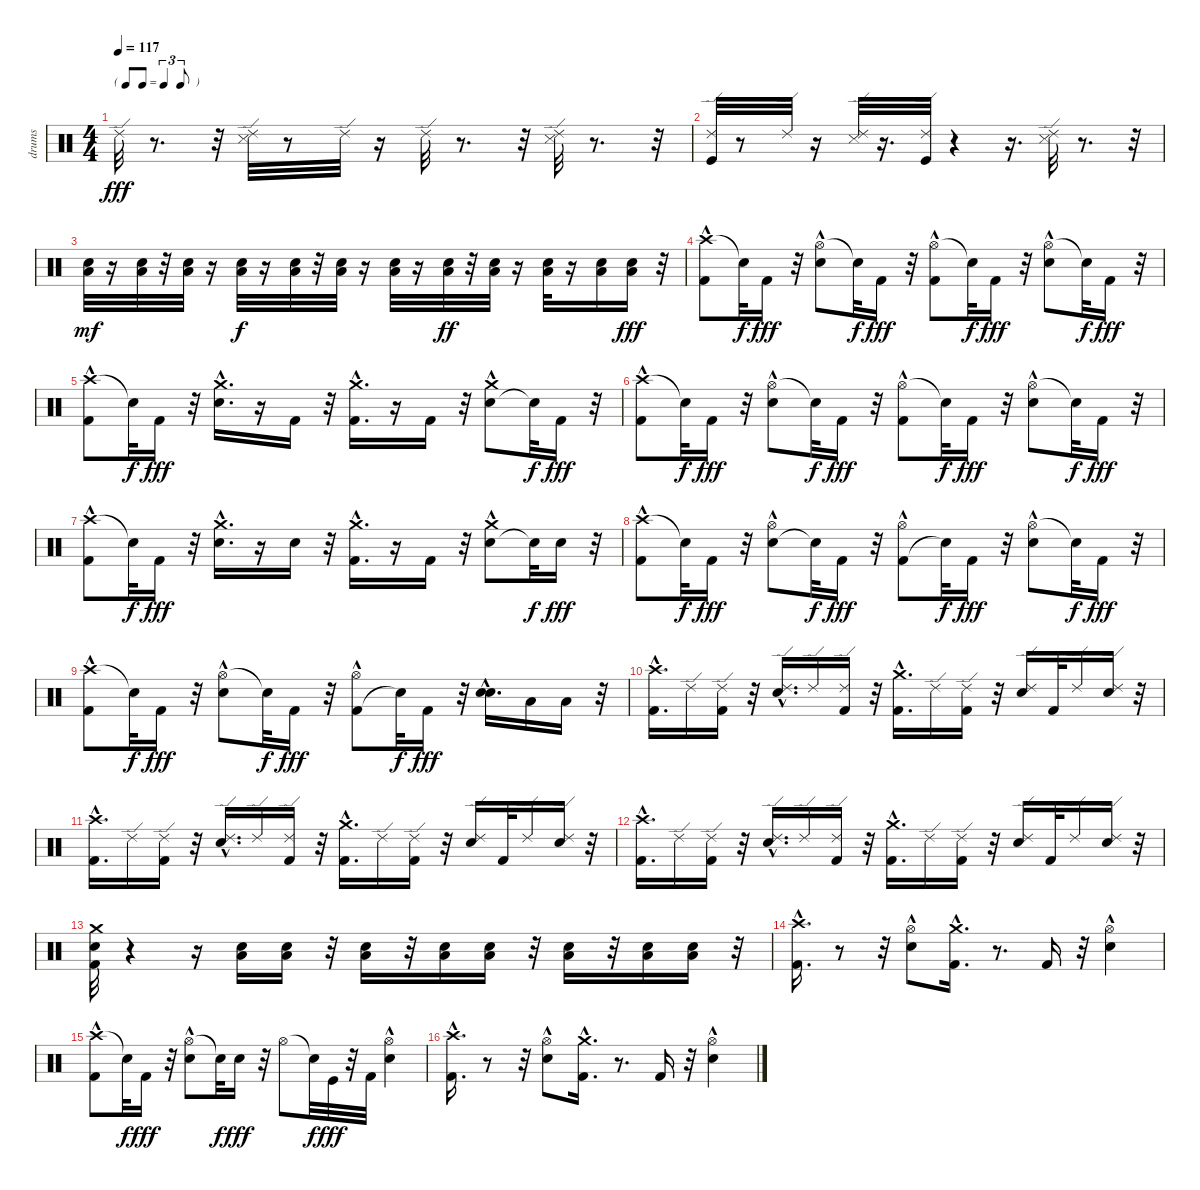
\track ("drums" "drums") {instrument percussion}
\staff {score}
\articulation defaults
\ts (4 4)
\tf triplet8th
\tempo 117
\clef neutral
\ks c "Ride (edge) 2".32{dy fff}
r.8{d} r.32 ("Snare (side stick) 3" "Ride (edge) 2").32 r.8 "Ride (edge) 2".32 r.16 "Ride (edge) 2".32 r.8{d} r.32 ("Snare (side stick) 3" "Ride (edge) 2").32 r.8{d} r.32 |
("Kick (hit)" "Ride (edge) 2").32 r.8 "Ride (edge) 2".32 r.16 ("Snare (side stick) 3" "Ride (edge) 2").32 r.16{d} ("Kick (hit)" "Ride (edge) 2").32 r.4 r.16{d} ("Snare (side stick) 3" "Ride (edge) 2").32 r.8{d} r.32 |
("Low Floor Tom (hit)" "Electric Snare (hit)").32{dy mf} r.16 ("Low Floor Tom (hit)" "Electric Snare (hit)").32 r.32 ("Low Floor Tom (hit)" "Electric Snare (hit)").32 r.16 ("Low Floor Tom (hit)" "Electric Snare (hit)").32{dy f} r.16 ("Low Floor Tom (hit)" "Electric Snare (hit)").32 r.32 ("Low Floor Tom (hit)" "Electric Snare (hit)").32 r.16 ("Low Floor Tom (hit)" "Electric Snare (hit)").32 r.16 ("Low Floor Tom (hit)" "Electric Snare (hit)").32{dy ff} r.32 ("Low Floor Tom (hit)" "Electric Snare (hit)").32 r.16 ("Low Floor Tom (hit)" "Electric Snare (hit)").32 r.16 ("Low Floor Tom (hit)" "Electric Snare (hit)").16 ("Electric Snare (hit)" "Low Floor Tom (hit)").16{dy fff} r.32 |
("Crash high (hit)" "Kick (hit) 2"{hac}).8 "Snare (hit)"{t}.32{dy f} "Kick (hit) 2".16{dy fff} r.32 ("Hi-Hat (open)" "Electric Snare (hit)"{hac}).8 "Snare (hit)"{t}.32{dy f} "Kick (hit) 2".16{dy fff} r.32 ("Hi-Hat (open)" "Kick (hit) 2"{hac}).8 "Snare (hit)"{t}.32{dy f} "Kick (hit) 2".16{dy fff} r.32 ("Hi-Hat (open)" "Electric Snare (hit)"{hac}).8 "Snare (hit)"{t}.32{dy f} "Kick (hit) 2".16{dy fff} r.32 |
("Crash high (hit)" "Kick (hit) 2"{hac}).8 "Snare (hit)"{t}.32{dy f} "Kick (hit) 2".16{dy fff} r.32 ("Electric Snare (hit)"{hac} "Crash medium (hit)"{hac}).16{d} r.16 "Kick (hit) 2".16 r.32 ("Kick (hit) 2"{hac} "Crash medium (hit)"{hac}).16{d} r.16 "Kick (hit) 2".16 r.32 ("Electric Snare (hit)"{hac} "Crash medium (hit)").8 "Snare (hit)"{t}.32{dy f} "Kick (hit) 2".16{dy fff} r.32 |
("Crash high (hit)" "Kick (hit) 2"{hac}).8 "Snare (hit)"{t}.32{dy f} "Kick (hit) 2".16{dy fff} r.32 ("Hi-Hat (open)" "Electric Snare (hit)"{hac}).8 "Snare (hit)"{t}.32{dy f} "Kick (hit) 2".16{dy fff} r.32 ("Hi-Hat (open)" "Kick (hit) 2"{hac}).8 "Snare (hit)"{t}.32{dy f} "Kick (hit) 2".16{dy fff} r.32 ("Hi-Hat (open)" "Electric Snare (hit)"{hac}).8 "Snare (hit)"{t}.32{dy f} "Kick (hit) 2".16{dy fff} r.32 |
("Crash high (hit)" "Kick (hit) 2"{hac}).8 "Snare (hit)"{t}.32{dy f} "Kick (hit) 2".16{dy fff} r.32 ("Electric Snare (hit)"{hac} "Crash medium (hit)"{hac}).16{d} r.16 "Electric Snare (hit)".16 r.32 ("Kick (hit) 2"{hac} "Crash medium (hit)"{hac}).16{d} r.16 "Kick (hit) 2".16 r.32 ("Electric Snare (hit)"{hac} "Crash medium (hit)").8 "Snare (hit)"{t}.32{dy f} "Electric Snare (hit)".16{dy fff} r.32 |
("Crash high (hit)" "Kick (hit) 2"{hac}).8 "Snare (hit)"{t}.32{dy f} "Kick (hit) 2".16{dy fff} r.32 ("Electric Snare (hit)"{hac} "Hi-Hat (open)").8 "Snare (hit)"{t}.32{dy f} "Kick (hit) 2".16{dy fff} r.32 ("Kick (hit) 2"{hac} "Hi-Hat (open)").8 "Snare (hit)"{t}.32{dy f} "Kick (hit) 2".16{dy fff} r.32 ("Hi-Hat (open)" "Electric Snare (hit)"{hac}).8 "Snare (hit)"{t}.32{dy f} "Kick (hit) 2".16{dy fff} r.32 |
("Crash high (hit)" "Kick (hit) 2"{hac}).8 "Snare (hit)"{t}.32{dy f} "Kick (hit) 2".16{dy fff} r.32 ("Hi-Hat (open)" "Electric Snare (hit)"{hac}).8 "Snare (hit)"{t}.32{dy f} "Kick (hit) 2".16{dy fff} r.32 ("Kick (hit) 2"{hac} "Hi-Hat (open)").8 "Snare (hit)"{t}.32{dy f} "Kick (hit) 2".16{dy fff} r.32 ("Electric Snare (hit)"{hac} "Electric Snare (hit)"{hac}).16{d} "Low Floor Tom (hit)".16 "Low Floor Tom (hit)".16 r.32 |
("Crash high (hit)"{hac} "Kick (hit) 2"{hac}).16{d} "Ride (edge) 2".16 ("Ride (edge) 2" "Kick (hit) 2").16 r.32 ("Ride (edge) 2" "Electric Snare (hit)"{hac}).16{d} "Ride (edge) 2".16 ("Ride (edge) 2" "Kick (hit) 2").16 r.32 ("Crash medium (hit)"{hac} "Kick (hit) 2"{hac}).16{d} "Ride (edge) 2".16 ("Ride (edge) 2" "Kick (hit) 2").16 r.32 ("Ride (edge) 2" "Electric Snare (hit)").16 "Kick (hit) 2".32 "Ride (edge) 2".16 ("Ride (edge) 2" "Electric Snare (hit)").16 r.32 |
("Crash high (hit)"{hac} "Kick (hit) 2"{hac}).16{d} "Ride (edge) 2".16 ("Ride (edge) 2" "Kick (hit) 2").16 r.32 ("Ride (edge) 2" "Electric Snare (hit)"{hac}).16{d} "Ride (edge) 2".16 ("Ride (edge) 2" "Kick (hit) 2").16 r.32 ("Crash medium (hit)"{hac} "Kick (hit) 2"{hac}).16{d} "Ride (edge) 2".16 ("Ride (edge) 2" "Kick (hit) 2").16 r.32 ("Ride (edge) 2" "Electric Snare (hit)").16 "Kick (hit) 2".32 "Ride (edge) 2".16 ("Ride (edge) 2" "Electric Snare (hit)").16 r.32 |
("Crash high (hit)"{hac} "Kick (hit) 2"{hac}).16{d} "Ride (edge) 2".16 ("Ride (edge) 2" "Kick (hit) 2").16 r.32 ("Ride (edge) 2" "Electric Snare (hit)"{hac}).16{d} "Ride (edge) 2".16 ("Ride (edge) 2" "Kick (hit) 2").16 r.32 ("Crash medium (hit)"{hac} "Kick (hit) 2"{hac}).16{d} "Ride (edge) 2".16 ("Ride (edge) 2" "Kick (hit) 2").16 r.32 ("Ride (edge) 2" "Electric Snare (hit)").16 "Kick (hit) 2".32 "Ride (edge) 2".16 ("Ride (edge) 2" "Electric Snare (hit)").16 r.32 |
("Kick (hit) 2" "Electric Snare (hit)" "Crash medium (hit)").32 r.4 r.16 ("Electric Snare (hit)" "Low Floor Tom (hit)").16 ("Electric Snare (hit)" "Low Floor Tom (hit)").16 r.32 ("Electric Snare (hit)" "Low Floor Tom (hit)").16 r.32 ("Electric Snare (hit)" "Low Floor Tom (hit)").16 ("Electric Snare (hit)" "Low Floor Tom (hit)").16 r.32 ("Electric Snare (hit)" "Low Floor Tom (hit)").16 r.32 ("Electric Snare (hit)" "Low Floor Tom (hit)").16 ("Electric Snare (hit)" "Low Floor Tom (hit)").16 r.32 |
("Kick (hit) 2"{hac} "Crash high (hit)"{hac}).16{d} r.8 r.32 ("Electric Snare (hit)"{hac} "Hi-Hat (open)").8 ("Kick (hit) 2"{hac} "Crash medium (hit)"{hac}).16{d} r.8{d} "Kick (hit) 2".16 r.32 ("Electric Snare (hit)"{hac} "Hi-Hat (open)").4 |
("Crash high (hit)" "Kick (hit) 2"{hac}).8 "Snare (hit)"{t}.32{dy f} "Kick (hit) 2".16{dy fff} r.32 ("Hi-Hat (open)" "Electric Snare (hit)"{hac}).8 "Snare (hit)"{t}.32{dy f} "Electric Snare (hit)".16{dy fff} r.32 "Hi-Hat (open)".8 "Snare (hit)"{t}.32{dy f} "Kick (hit)".32{dy fff} r.32 "Kick (hit) 2".32 ("Hi-Hat (open)" "Electric Snare (hit)"{hac}).4 |
("Kick (hit) 2"{hac} "Crash high (hit)"{hac}).16{d} r.8 r.32 ("Electric Snare (hit)"{hac} "Hi-Hat (open)").8 ("Kick (hit) 2"{hac} "Crash medium (hit)"{hac}).16{d} r.8{d} "Kick (hit) 2".16 r.32 ("Electric Snare (hit)"{hac} "Hi-Hat (open)").4
